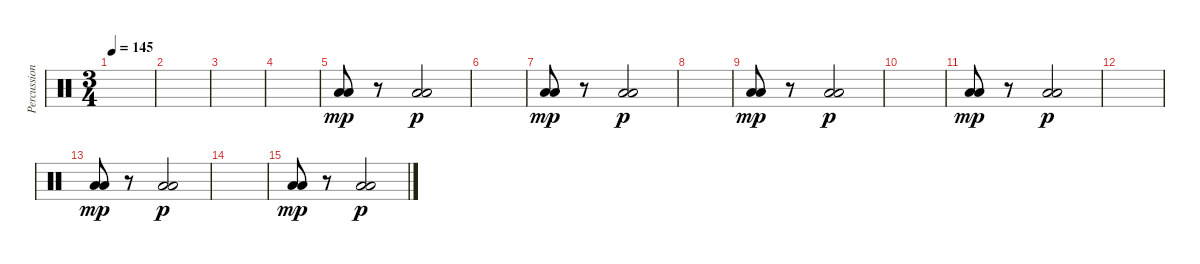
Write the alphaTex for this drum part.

\track ("Percussion" "Percussion") {instrument percussion}
\staff {score}
\articulation defaults
\ts (3 4)
\tempo 145
\clef neutral
\ks c
|
|
|
|
("Low Floor Tom (hit)" "Low Tom (hit)").8{dy mp} r.8 ("Low Floor Tom (hit)" "Low Tom (hit)").2{dy p} |
|
("Low Floor Tom (hit)" "Low Tom (hit)").8{dy mp} r.8 ("Low Floor Tom (hit)" "Low Tom (hit)").2{dy p} |
|
("Low Floor Tom (hit)" "Low Tom (hit)").8{dy mp} r.8 ("Low Floor Tom (hit)" "Low Tom (hit)").2{dy p} |
|
("Low Floor Tom (hit)" "Low Tom (hit)").8{dy mp} r.8 ("Low Floor Tom (hit)" "Low Tom (hit)").2{dy p} |
|
("Low Floor Tom (hit)" "Low Tom (hit)").8{dy mp} r.8 ("Low Floor Tom (hit)" "Low Tom (hit)").2{dy p} |
|
("Low Floor Tom (hit)" "Low Tom (hit)").8{dy mp} r.8 ("Low Floor Tom (hit)" "Low Tom (hit)").2{dy p}
